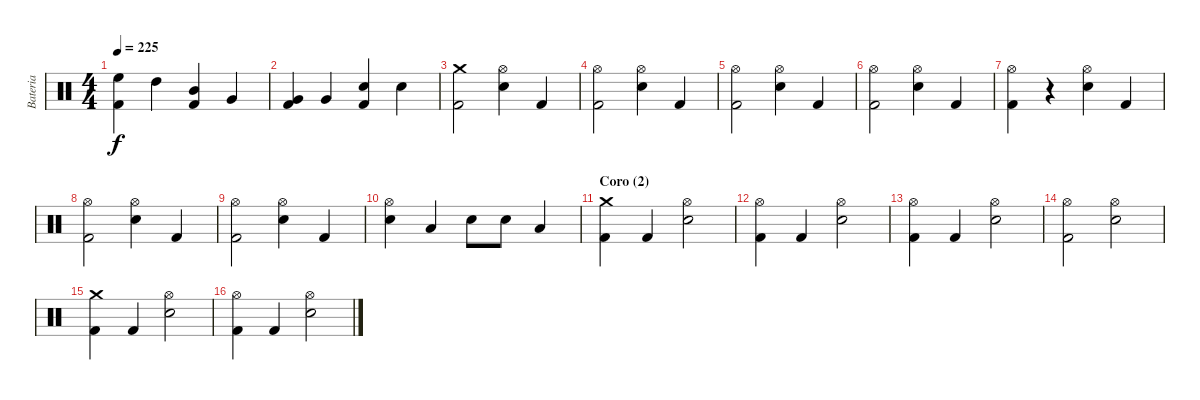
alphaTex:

\track ("Bateria" "Bateria") {instrument percussion}
\staff {score}
\articulation defaults
\ts (4 4)
\tempo 225
\clef neutral
\ks c
("Kick (hit) 2" "High Floor Tom (hit)").4{dy f} "High Tom (hit)".4 ("Mid Tom (hit)" "Kick (hit) 2").4 "Very Low Tom (hit)".4 |
("Kick (hit) 2" "Very Low Tom (hit)").4 "Very Low Tom (hit)".4 ("Kick (hit) 2" "Snare (hit) 2").4 "Snare (hit) 2".4 |
("Kick (hit) 2" "Crash medium (hit)").2 ("Snare (hit) 2" "Hi-Hat (open)").4 "Kick (hit) 2".4 |
("Kick (hit) 2" "Hi-Hat (open)").2 ("Snare (hit) 2" "Hi-Hat (open)").4 "Kick (hit) 2".4 |
("Kick (hit) 2" "Hi-Hat (open)").2 ("Snare (hit) 2" "Hi-Hat (open)").4 "Kick (hit) 2".4 |
("Kick (hit) 2" "Hi-Hat (open)").2 ("Snare (hit) 2" "Hi-Hat (open)").4 "Kick (hit) 2".4 |
("Kick (hit) 2" "Hi-Hat (open)").4 r.4 ("Snare (hit) 2" "Hi-Hat (open)").4 "Kick (hit) 2".4 |
("Kick (hit) 2" "Hi-Hat (open)").2 ("Snare (hit) 2" "Hi-Hat (open)").4 "Kick (hit) 2".4 |
("Kick (hit) 2" "Hi-Hat (open)").2 ("Snare (hit) 2" "Hi-Hat (open)").4 "Kick (hit) 2".4 |
("Hi-Hat (open)" "Snare (hit) 2").4 "Low Tom (hit)".4 "Snare (hit) 2".8 "Snare (hit) 2".8 "Low Tom (hit)".4 |
\section ("" "Coro (2)")
("Kick (hit) 2" "Crash medium (hit)").4 "Kick (hit) 2".4 ("Snare (hit) 2" "Hi-Hat (open)").2 |
("Kick (hit) 2" "Hi-Hat (open)").4 "Kick (hit) 2".4 ("Snare (hit) 2" "Hi-Hat (open)").2 |
("Kick (hit) 2" "Hi-Hat (open)").4 "Kick (hit) 2".4 ("Snare (hit) 2" "Hi-Hat (open)").2 |
("Kick (hit) 2" "Hi-Hat (open)").2 ("Snare (hit) 2" "Hi-Hat (open)").2 |
("Kick (hit) 2" "Crash medium (hit)").4 "Kick (hit) 2".4 ("Snare (hit) 2" "Hi-Hat (open)").2 |
("Kick (hit) 2" "Hi-Hat (open)").4 "Kick (hit) 2".4 ("Snare (hit) 2" "Hi-Hat (open)").2
